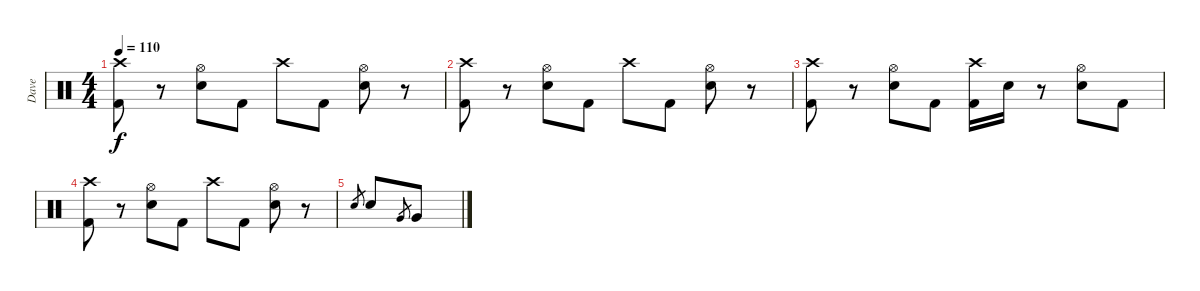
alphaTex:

\track ("Dave" "Dave") {instrument percussion}
\staff {score}
\articulation defaults
\ts (4 4)
\tempo 110
\clef neutral
\ks c
("Crash high (hit)" "Kick (hit) 2").8{dy f} r.8 ("Hi-Hat (open)" "Snare (hit) 2").8 "Kick (hit) 2".8 "Crash high (hit)".8 "Kick (hit) 2".8 ("Hi-Hat (open)" "Snare (hit) 2").8 r.8 |
("Crash high (hit)" "Kick (hit) 2").8 r.8 ("Hi-Hat (open)" "Snare (hit) 2").8 "Kick (hit) 2".8 "Crash high (hit)".8 "Kick (hit) 2".8 ("Hi-Hat (open)" "Snare (hit) 2").8 r.8 |
("Crash high (hit)" "Kick (hit) 2").8 r.8 ("Hi-Hat (open)" "Snare (hit) 2").8 "Kick (hit) 2".8 ("Crash high (hit)" "Kick (hit) 2").16 "Snare (hit) 2".16 r.8 ("Hi-Hat (open)" "Snare (hit) 2").8 "Kick (hit) 2".8 |
("Crash high (hit)" "Kick (hit) 2").8 r.8 ("Hi-Hat (open)" "Snare (hit) 2").8 "Kick (hit) 2".8 "Crash high (hit)".8 "Kick (hit) 2".8 ("Hi-Hat (open)" "Snare (hit) 2").8 r.8 |
"Snare (hit) 2".8{gr} "Snare (hit) 2".8 "Very Low Tom (hit)".8{gr} "Very Low Tom (hit)".8
